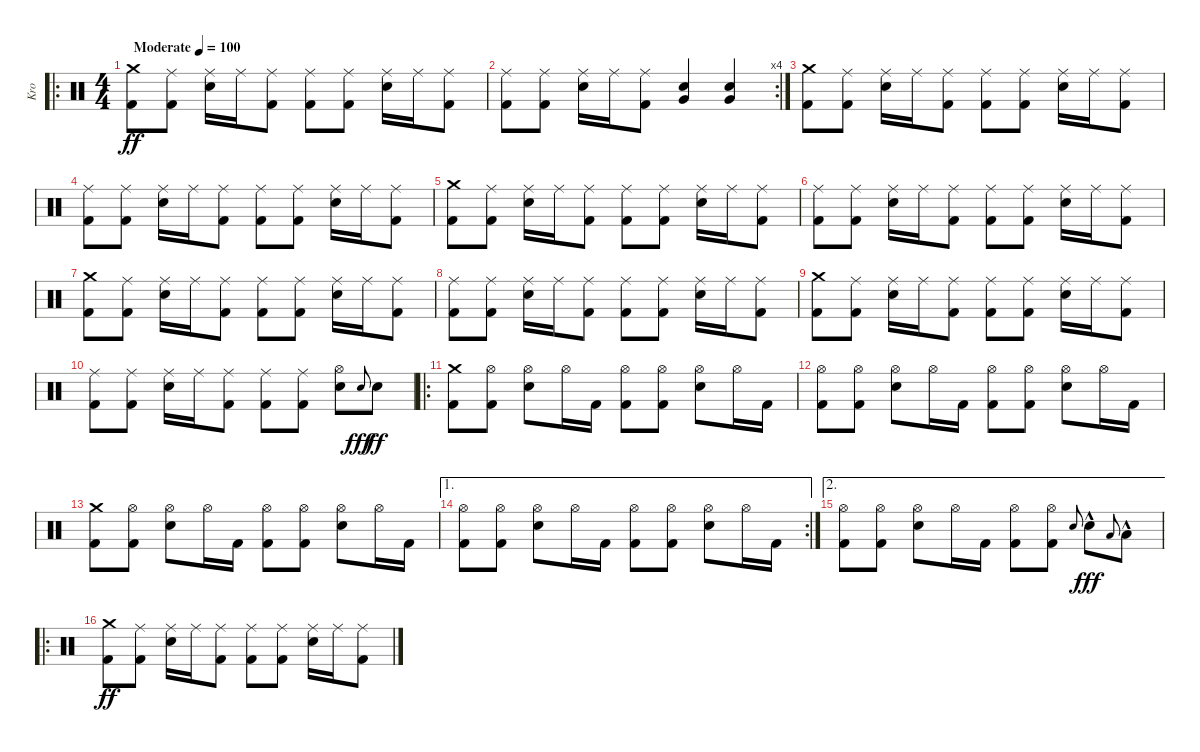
\track ("Kro" "Kro") {instrument percussion}
\staff {score}
\articulation defaults
\ro
\ts (4 4)
\tempo (100 "Moderate")
\clef neutral
\ks c
("Crash medium (hit)" "Kick (hit) 2").8{dy ff} ("Ride (middle)" "Kick (hit) 2").8 ("Ride (middle)" "Electric Snare (hit)").16 "Ride (middle)".16 ("Ride (middle)" "Kick (hit) 2").8 ("Ride (middle)" "Kick (hit) 2").8 ("Ride (middle)" "Kick (hit) 2").8 ("Ride (middle)" "Electric Snare (hit)").16 "Ride (middle)".16 ("Ride (middle)" "Kick (hit) 2").8 |
\rc 4
("Ride (middle)" "Kick (hit) 2").8 ("Ride (middle)" "Kick (hit) 2").8 ("Ride (middle)" "Electric Snare (hit)").16 "Ride (middle)".16 ("Ride (middle)" "Kick (hit) 2").8 ("Electric Snare (hit)" "Very Low Tom (hit)").4 ("Electric Snare (hit)" "Very Low Tom (hit)").4 |
("Crash medium (hit)" "Kick (hit) 2").8 ("Ride (middle)" "Kick (hit) 2").8 ("Ride (middle)" "Electric Snare (hit)").16 "Ride (middle)".16 ("Ride (middle)" "Kick (hit) 2").8 ("Ride (middle)" "Kick (hit) 2").8 ("Ride (middle)" "Kick (hit) 2").8 ("Ride (middle)" "Electric Snare (hit)").16 "Ride (middle)".16 ("Ride (middle)" "Kick (hit) 2").8 |
("Ride (middle)" "Kick (hit) 2").8 ("Ride (middle)" "Kick (hit) 2").8 ("Ride (middle)" "Electric Snare (hit)").16 "Ride (middle)".16 ("Ride (middle)" "Kick (hit) 2").8 ("Ride (middle)" "Kick (hit) 2").8 ("Ride (middle)" "Kick (hit) 2").8 ("Ride (middle)" "Electric Snare (hit)").16 "Ride (middle)".16 ("Ride (middle)" "Kick (hit) 2").8 |
("Crash medium (hit)" "Kick (hit) 2").8 ("Ride (middle)" "Kick (hit) 2").8 ("Ride (middle)" "Electric Snare (hit)").16 "Ride (middle)".16 ("Ride (middle)" "Kick (hit) 2").8 ("Ride (middle)" "Kick (hit) 2").8 ("Ride (middle)" "Kick (hit) 2").8 ("Ride (middle)" "Electric Snare (hit)").16 "Ride (middle)".16 ("Ride (middle)" "Kick (hit) 2").8 |
("Ride (middle)" "Kick (hit) 2").8 ("Ride (middle)" "Kick (hit) 2").8 ("Ride (middle)" "Electric Snare (hit)").16 "Ride (middle)".16 ("Ride (middle)" "Kick (hit) 2").8 ("Ride (middle)" "Kick (hit) 2").8 ("Ride (middle)" "Kick (hit) 2").8 ("Ride (middle)" "Electric Snare (hit)").16 "Ride (middle)".16 ("Ride (middle)" "Kick (hit) 2").8 |
("Crash medium (hit)" "Kick (hit) 2").8 ("Ride (middle)" "Kick (hit) 2").8 ("Ride (middle)" "Electric Snare (hit)").16 "Ride (middle)".16 ("Ride (middle)" "Kick (hit) 2").8 ("Ride (middle)" "Kick (hit) 2").8 ("Ride (middle)" "Kick (hit) 2").8 ("Ride (middle)" "Electric Snare (hit)").16 "Ride (middle)".16 ("Ride (middle)" "Kick (hit) 2").8 |
("Ride (middle)" "Kick (hit) 2").8 ("Ride (middle)" "Kick (hit) 2").8 ("Ride (middle)" "Electric Snare (hit)").16 "Ride (middle)".16 ("Ride (middle)" "Kick (hit) 2").8 ("Ride (middle)" "Kick (hit) 2").8 ("Ride (middle)" "Kick (hit) 2").8 ("Ride (middle)" "Electric Snare (hit)").16 "Ride (middle)".16 ("Ride (middle)" "Kick (hit) 2").8 |
("Crash medium (hit)" "Kick (hit) 2").8 ("Ride (middle)" "Kick (hit) 2").8 ("Ride (middle)" "Electric Snare (hit)").16 "Ride (middle)".16 ("Ride (middle)" "Kick (hit) 2").8 ("Ride (middle)" "Kick (hit) 2").8 ("Ride (middle)" "Kick (hit) 2").8 ("Ride (middle)" "Electric Snare (hit)").16 "Ride (middle)".16 ("Ride (middle)" "Kick (hit) 2").8 |
("Ride (middle)" "Kick (hit) 2").8 ("Ride (middle)" "Kick (hit) 2").8 ("Ride (middle)" "Electric Snare (hit)").16 "Ride (middle)".16 ("Ride (middle)" "Kick (hit) 2").8 ("Ride (middle)" "Kick (hit) 2").8 ("Ride (middle)" "Kick (hit) 2").8 ("Hi-Hat (open)" "Electric Snare (hit)").8 "Electric Snare (hit)".8{gr onbeat dy fff} "Electric Snare (hit)".8{dy ff} |
\ro
("Crash medium (hit)" "Kick (hit) 2").8 ("Hi-Hat (open)" "Kick (hit) 2").8 ("Hi-Hat (open)" "Electric Snare (hit)").8 "Hi-Hat (open)".16 "Kick (hit) 2".16 ("Hi-Hat (open)" "Kick (hit) 2").8 ("Hi-Hat (open)" "Kick (hit) 2").8 ("Hi-Hat (open)" "Electric Snare (hit)").8 "Hi-Hat (open)".16 "Kick (hit) 2".16 |
("Hi-Hat (open)" "Kick (hit) 2").8 ("Hi-Hat (open)" "Kick (hit) 2").8 ("Hi-Hat (open)" "Electric Snare (hit)").8 "Hi-Hat (open)".16 "Kick (hit) 2".16 ("Hi-Hat (open)" "Kick (hit) 2").8 ("Hi-Hat (open)" "Kick (hit) 2").8 ("Hi-Hat (open)" "Electric Snare (hit)").8 "Hi-Hat (open)".16 "Kick (hit) 2".16 |
("Crash medium (hit)" "Kick (hit) 2").8 ("Hi-Hat (open)" "Kick (hit) 2").8 ("Hi-Hat (open)" "Electric Snare (hit)").8 "Hi-Hat (open)".16 "Kick (hit) 2".16 ("Hi-Hat (open)" "Kick (hit) 2").8 ("Hi-Hat (open)" "Kick (hit) 2").8 ("Hi-Hat (open)" "Electric Snare (hit)").8 "Hi-Hat (open)".16 "Kick (hit) 2".16 |
\ae 1
\rc 2
("Hi-Hat (open)" "Kick (hit) 2").8 ("Hi-Hat (open)" "Kick (hit) 2").8 ("Hi-Hat (open)" "Electric Snare (hit)").8 "Hi-Hat (open)".16 "Kick (hit) 2".16 ("Hi-Hat (open)" "Kick (hit) 2").8 ("Hi-Hat (open)" "Kick (hit) 2").8 ("Hi-Hat (open)" "Electric Snare (hit)").8 "Hi-Hat (open)".16 "Kick (hit) 2".16 |
\ae 2
("Hi-Hat (open)" "Kick (hit) 2").8 ("Hi-Hat (open)" "Kick (hit) 2").8 ("Hi-Hat (open)" "Electric Snare (hit)").8 "Hi-Hat (open)".16 "Kick (hit) 2".16 ("Hi-Hat (open)" "Kick (hit) 2").8 ("Hi-Hat (open)" "Kick (hit) 2").8 "Electric Snare (hit)".8{gr onbeat} "Electric Snare (hit)"{hac}.8{dy fff} "Low Tom (hit)".8{gr onbeat} "Low Tom (hit)"{hac}.8 |
\ro
("Crash medium (hit)" "Kick (hit) 2").8{dy ff} ("Ride (middle)" "Kick (hit) 2").8 ("Ride (middle)" "Electric Snare (hit)").16 "Ride (middle)".16 ("Ride (middle)" "Kick (hit) 2").8 ("Ride (middle)" "Kick (hit) 2").8 ("Ride (middle)" "Kick (hit) 2").8 ("Ride (middle)" "Electric Snare (hit)").16 "Ride (middle)".16 ("Ride (middle)" "Kick (hit) 2").8
